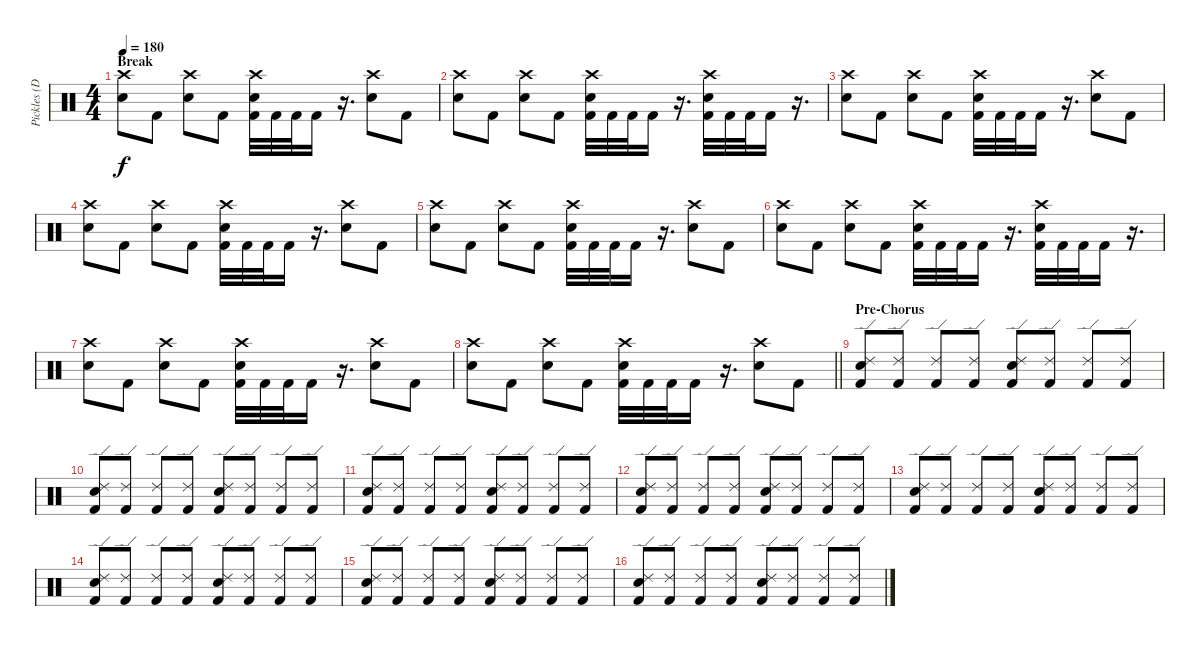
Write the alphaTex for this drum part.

\track ("Pickles (Drums)" "Pickles (D") {instrument percussion}
\staff {score}
\articulation defaults
\ts (4 4)
\section ("" "Break")
\tempo 180
\clef neutral
\ks c
("Crash high (hit)" "Snare (hit) 2").8{dy f} "Kick (hit) 2".8 ("Crash high (hit)" "Snare (hit) 2").8 "Kick (hit) 2".8 ("Crash high (hit)" "Snare (hit) 2" "Kick (hit) 2").32 "Kick (hit) 2".32 "Kick (hit) 2".32 "Kick (hit) 2".16 r.16{d} ("Crash high (hit)" "Snare (hit) 2").8 "Kick (hit) 2".8 |
("Crash high (hit)" "Snare (hit) 2").8 "Kick (hit) 2".8 ("Crash high (hit)" "Snare (hit) 2").8 "Kick (hit) 2".8 ("Crash high (hit)" "Snare (hit) 2" "Kick (hit) 2").32 "Kick (hit) 2".32 "Kick (hit) 2".32 "Kick (hit) 2".16 r.16{d} ("Crash high (hit)" "Snare (hit) 2" "Kick (hit) 2").32 "Kick (hit) 2".32 "Kick (hit) 2".32 "Kick (hit) 2".16 r.16{d} |
("Crash high (hit)" "Snare (hit) 2").8 "Kick (hit) 2".8 ("Crash high (hit)" "Snare (hit) 2").8 "Kick (hit) 2".8 ("Crash high (hit)" "Snare (hit) 2" "Kick (hit) 2").32 "Kick (hit) 2".32 "Kick (hit) 2".32 "Kick (hit) 2".16 r.16{d} ("Crash high (hit)" "Snare (hit) 2").8 "Kick (hit) 2".8 |
("Crash high (hit)" "Snare (hit) 2").8 "Kick (hit) 2".8 ("Crash high (hit)" "Snare (hit) 2").8 "Kick (hit) 2".8 ("Crash high (hit)" "Snare (hit) 2" "Kick (hit) 2").32 "Kick (hit) 2".32 "Kick (hit) 2".32 "Kick (hit) 2".16 r.16{d} ("Crash high (hit)" "Snare (hit) 2").8 "Kick (hit) 2".8 |
("Crash high (hit)" "Snare (hit) 2").8 "Kick (hit) 2".8 ("Crash high (hit)" "Snare (hit) 2").8 "Kick (hit) 2".8 ("Crash high (hit)" "Snare (hit) 2" "Kick (hit) 2").32 "Kick (hit) 2".32 "Kick (hit) 2".32 "Kick (hit) 2".16 r.16{d} ("Crash high (hit)" "Snare (hit) 2").8 "Kick (hit) 2".8 |
("Crash high (hit)" "Snare (hit) 2").8 "Kick (hit) 2".8 ("Crash high (hit)" "Snare (hit) 2").8 "Kick (hit) 2".8 ("Crash high (hit)" "Snare (hit) 2" "Kick (hit) 2").32 "Kick (hit) 2".32 "Kick (hit) 2".32 "Kick (hit) 2".16 r.16{d} ("Crash high (hit)" "Snare (hit) 2" "Kick (hit) 2").32 "Kick (hit) 2".32 "Kick (hit) 2".32 "Kick (hit) 2".16 r.16{d} |
("Crash high (hit)" "Snare (hit) 2").8 "Kick (hit) 2".8 ("Crash high (hit)" "Snare (hit) 2").8 "Kick (hit) 2".8 ("Crash high (hit)" "Snare (hit) 2" "Kick (hit) 2").32 "Kick (hit) 2".32 "Kick (hit) 2".32 "Kick (hit) 2".16 r.16{d} ("Crash high (hit)" "Snare (hit) 2").8 "Kick (hit) 2".8 |
\barLineRight lightlight
("Crash high (hit)" "Snare (hit) 2").8 "Kick (hit) 2".8 ("Crash high (hit)" "Snare (hit) 2").8 "Kick (hit) 2".8 ("Crash high (hit)" "Snare (hit) 2" "Kick (hit) 2").32 "Kick (hit) 2".32 "Kick (hit) 2".32 "Kick (hit) 2".16 r.16{d} ("Crash high (hit)" "Snare (hit) 2").8 "Kick (hit) 2".8 |
\section ("" "Pre-Chorus")
("Ride (edge) 2" "Snare (hit) 2" "Kick (hit) 2").8 ("Ride (edge) 2" "Kick (hit) 2").8 ("Ride (edge) 2" "Kick (hit) 2").8 ("Ride (edge) 2" "Kick (hit) 2").8 ("Ride (edge) 2" "Snare (hit) 2" "Kick (hit) 2").8 ("Ride (edge) 2" "Kick (hit) 2").8 ("Ride (edge) 2" "Kick (hit) 2").8 ("Ride (edge) 2" "Kick (hit) 2").8 |
("Ride (edge) 2" "Snare (hit) 2" "Kick (hit) 2").8 ("Ride (edge) 2" "Kick (hit) 2").8 ("Ride (edge) 2" "Kick (hit) 2").8 ("Ride (edge) 2" "Kick (hit) 2").8 ("Ride (edge) 2" "Snare (hit) 2" "Kick (hit) 2").8 ("Ride (edge) 2" "Kick (hit) 2").8 ("Ride (edge) 2" "Kick (hit) 2").8 ("Ride (edge) 2" "Kick (hit) 2").8 |
("Ride (edge) 2" "Snare (hit) 2" "Kick (hit) 2").8 ("Ride (edge) 2" "Kick (hit) 2").8 ("Ride (edge) 2" "Kick (hit) 2").8 ("Ride (edge) 2" "Kick (hit) 2").8 ("Ride (edge) 2" "Snare (hit) 2" "Kick (hit) 2").8 ("Ride (edge) 2" "Kick (hit) 2").8 ("Ride (edge) 2" "Kick (hit) 2").8 ("Ride (edge) 2" "Kick (hit) 2").8 |
("Ride (edge) 2" "Snare (hit) 2" "Kick (hit) 2").8 ("Ride (edge) 2" "Kick (hit) 2").8 ("Ride (edge) 2" "Kick (hit) 2").8 ("Ride (edge) 2" "Kick (hit) 2").8 ("Ride (edge) 2" "Snare (hit) 2" "Kick (hit) 2").8 ("Ride (edge) 2" "Kick (hit) 2").8 ("Ride (edge) 2" "Kick (hit) 2").8 ("Ride (edge) 2" "Kick (hit) 2").8 |
("Ride (edge) 2" "Snare (hit) 2" "Kick (hit) 2").8 ("Ride (edge) 2" "Kick (hit) 2").8 ("Ride (edge) 2" "Kick (hit) 2").8 ("Ride (edge) 2" "Kick (hit) 2").8 ("Ride (edge) 2" "Snare (hit) 2" "Kick (hit) 2").8 ("Ride (edge) 2" "Kick (hit) 2").8 ("Ride (edge) 2" "Kick (hit) 2").8 ("Ride (edge) 2" "Kick (hit) 2").8 |
("Ride (edge) 2" "Snare (hit) 2" "Kick (hit) 2").8 ("Ride (edge) 2" "Kick (hit) 2").8 ("Ride (edge) 2" "Kick (hit) 2").8 ("Ride (edge) 2" "Kick (hit) 2").8 ("Ride (edge) 2" "Snare (hit) 2" "Kick (hit) 2").8 ("Ride (edge) 2" "Kick (hit) 2").8 ("Ride (edge) 2" "Kick (hit) 2").8 ("Ride (edge) 2" "Kick (hit) 2").8 |
("Ride (edge) 2" "Snare (hit) 2" "Kick (hit) 2").8 ("Ride (edge) 2" "Kick (hit) 2").8 ("Ride (edge) 2" "Kick (hit) 2").8 ("Ride (edge) 2" "Kick (hit) 2").8 ("Ride (edge) 2" "Snare (hit) 2" "Kick (hit) 2").8 ("Ride (edge) 2" "Kick (hit) 2").8 ("Ride (edge) 2" "Kick (hit) 2").8 ("Ride (edge) 2" "Kick (hit) 2").8 |
("Ride (edge) 2" "Snare (hit) 2" "Kick (hit) 2").8 ("Ride (edge) 2" "Kick (hit) 2").8 ("Ride (edge) 2" "Kick (hit) 2").8 ("Ride (edge) 2" "Kick (hit) 2").8 ("Ride (edge) 2" "Snare (hit) 2" "Kick (hit) 2").8 ("Ride (edge) 2" "Kick (hit) 2").8 ("Ride (edge) 2" "Kick (hit) 2").8 ("Ride (edge) 2" "Kick (hit) 2").8
